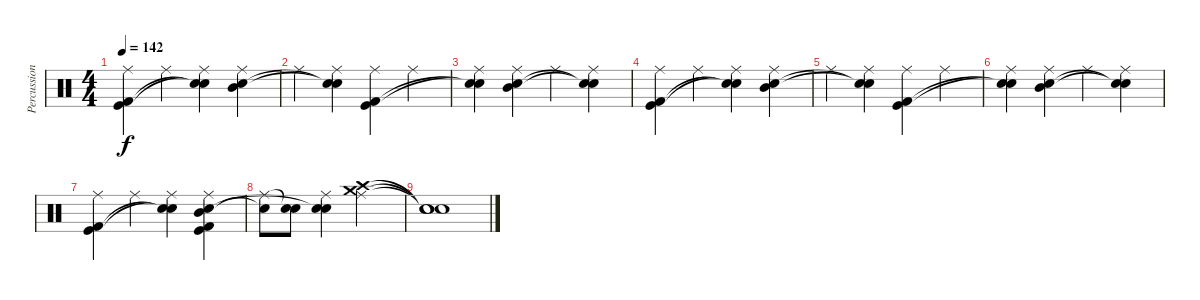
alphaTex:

\track ("Percussion" "Percussion") {instrument percussion}
\staff {score}
\articulation defaults
\ts (4 4)
\tempo 142
\clef neutral
\ks c
("Ride (middle)" "Kick (hit)" "Kick (hit) 2").4{dy f} "Ride (middle)".4 ("Ride (middle)" "Snare (hit)"{t} "Snare (hit)"{t}).4 ("Ride (middle)" "Mid Tom (hit)" "Electric Snare (hit)").4 |
"Ride (middle)".4 ("Ride (middle)" "Snare (hit)"{t} "Snare (hit)"{t}).4 ("Ride (middle)" "Kick (hit)" "Kick (hit) 2").4 "Ride (middle)".4 |
("Ride (middle)" "Snare (hit)"{t} "Snare (hit)"{t}).4 ("Ride (middle)" "Mid Tom (hit)" "Electric Snare (hit)").4 "Ride (middle)".4 ("Ride (middle)" "Snare (hit)"{t} "Snare (hit)"{t}).4 |
("Ride (middle)" "Kick (hit)" "Kick (hit) 2").4 "Ride (middle)".4 ("Ride (middle)" "Snare (hit)"{t} "Snare (hit)"{t}).4 ("Ride (middle)" "Mid Tom (hit)" "Electric Snare (hit)").4 |
"Ride (middle)".4 ("Ride (middle)" "Snare (hit)"{t} "Snare (hit)"{t}).4 ("Ride (middle)" "Kick (hit)" "Kick (hit) 2").4 "Ride (middle)".4 |
("Ride (middle)" "Snare (hit)"{t} "Snare (hit)"{t}).4 ("Ride (middle)" "Mid Tom (hit)" "Electric Snare (hit)").4 "Ride (middle)".4 ("Ride (middle)" "Snare (hit)"{t} "Snare (hit)"{t}).4 |
("Ride (middle)" "Kick (hit)" "Kick (hit) 2").4 "Ride (middle)".4 ("Ride (middle)" "Snare (hit)"{t} "Snare (hit)"{t}).4 ("Ride (middle)" "Mid Tom (hit)" "Electric Snare (hit)" "Kick (hit)" "Kick (hit) 2").4 |
("Ride (middle)" "Snare (hit)"{t}).8 ("Snare (hit)"{t} "Snare (hit) 2").8 ("Ride (middle)" "Snare (hit) 2" "Snare (hit)"{t}).4 ("Ride (middle)" "Crash high (hit)" "Crash medium (hit)").2 |
("Snare (hit)"{t} "Snare (hit)"{t} "Snare (hit)"{t}).1
